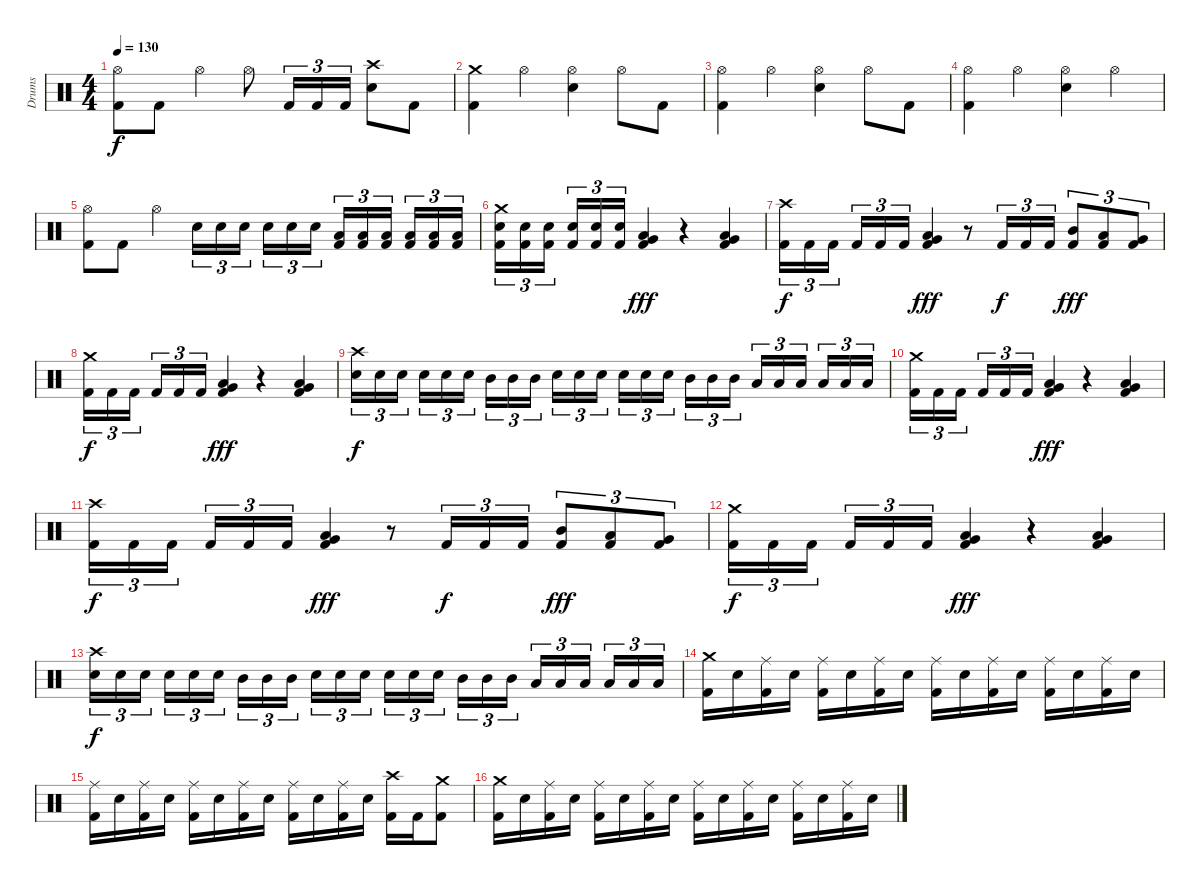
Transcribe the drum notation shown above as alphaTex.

\track ("Drums" "Drums") {instrument percussion}
\staff {score}
\articulation defaults
\ts (4 4)
\tempo 130
\clef neutral
\ks c
("Kick (hit) 2" "Hi-Hat (open)").8{dy f} "Kick (hit) 2".8 "Hi-Hat (open)".4 "Hi-Hat (open)".8 "Kick (hit) 2".16{tu (3 2)} "Kick (hit) 2".16{tu (3 2)} "Kick (hit) 2".16{tu (3 2)} ("Snare (hit) 2" "Crash high (hit)").8 "Kick (hit) 2".8 |
("Kick (hit) 2" "Crash medium (hit)").4 "Hi-Hat (open)".4 ("Snare (hit) 2" "Hi-Hat (open)").4 "Hi-Hat (open)".8 "Kick (hit) 2".8 |
("Kick (hit) 2" "Hi-Hat (open)").4 "Hi-Hat (open)".4 ("Snare (hit) 2" "Hi-Hat (open)").4 "Hi-Hat (open)".8 "Kick (hit) 2".8 |
("Kick (hit) 2" "Hi-Hat (open)").4 "Hi-Hat (open)".4 ("Snare (hit) 2" "Hi-Hat (open)").4 "Hi-Hat (open)".4 |
("Kick (hit) 2" "Hi-Hat (open)").8 "Kick (hit) 2".8 "Hi-Hat (open)".4 "Snare (hit) 2".16{tu (3 2)} "Snare (hit) 2".16{tu (3 2)} "Snare (hit) 2".16{tu (3 2)} "Snare (hit) 2".16{tu (3 2)} "Snare (hit) 2".16{tu (3 2)} "Snare (hit) 2".16{tu (3 2)} ("Kick (hit) 2" "Low Tom (hit)").16{tu (3 2)} ("Kick (hit) 2" "Low Tom (hit)").16{tu (3 2)} ("Kick (hit) 2" "Low Tom (hit)").16{tu (3 2)} ("Kick (hit) 2" "Low Tom (hit)").16{tu (3 2)} ("Kick (hit) 2" "Low Tom (hit)").16{tu (3 2)} ("Kick (hit) 2" "Low Tom (hit)").16{tu (3 2)} |
("Kick (hit) 2" "Snare (hit) 2" "Crash medium (hit)").16{tu (3 2)} ("Kick (hit) 2" "Snare (hit) 2").16{tu (3 2)} ("Kick (hit) 2" "Snare (hit) 2").16{tu (3 2)} ("Kick (hit) 2" "Snare (hit) 2").16{tu (3 2)} ("Kick (hit) 2" "Snare (hit) 2").16{tu (3 2)} ("Kick (hit) 2" "Snare (hit) 2").16{tu (3 2)} ("Kick (hit) 2" "Low Tom (hit)" "Very Low Tom (hit)").4{dy fff} r.4 ("Kick (hit) 2" "Low Tom (hit)" "Very Low Tom (hit)").4 |
("Kick (hit) 2" "Crash high (hit)").16{tu (3 2) dy f} "Kick (hit) 2".16{tu (3 2)} "Kick (hit) 2".16{tu (3 2)} "Kick (hit) 2".16{tu (3 2)} "Kick (hit) 2".16{tu (3 2)} "Kick (hit) 2".16{tu (3 2)} ("Kick (hit) 2" "Low Tom (hit)" "Very Low Tom (hit)").4{dy fff} r.8 "Kick (hit) 2".16{tu (3 2) dy f} "Kick (hit) 2".16{tu (3 2)} "Kick (hit) 2".16{tu (3 2)} ("Kick (hit) 2" "Mid Tom (hit)").8{tu (3 2) dy fff} ("Kick (hit) 2" "Low Tom (hit)").8{tu (3 2)} ("Kick (hit) 2" "Very Low Tom (hit)").8{tu (3 2)} |
("Kick (hit) 2" "Crash medium (hit)").16{tu (3 2) dy f} "Kick (hit) 2".16{tu (3 2)} "Kick (hit) 2".16{tu (3 2)} "Kick (hit) 2".16{tu (3 2)} "Kick (hit) 2".16{tu (3 2)} "Kick (hit) 2".16{tu (3 2)} ("Kick (hit) 2" "Low Tom (hit)" "Very Low Tom (hit)").4{dy fff} r.4 ("Kick (hit) 2" "Low Tom (hit)" "Very Low Tom (hit)").4 |
("Snare (hit) 2" "Crash high (hit)").16{tu (3 2) dy f} "Snare (hit) 2".16{tu (3 2)} "Snare (hit) 2".16{tu (3 2)} "Snare (hit) 2".16{tu (3 2)} "Snare (hit) 2".16{tu (3 2)} "Snare (hit) 2".16{tu (3 2)} "Mid Tom (hit)".16{tu (3 2)} "Mid Tom (hit)".16{tu (3 2)} "Mid Tom (hit)".16{tu (3 2)} "Snare (hit) 2".16{tu (3 2)} "Snare (hit) 2".16{tu (3 2)} "Snare (hit) 2".16{tu (3 2)} "Snare (hit) 2".16{tu (3 2)} "Snare (hit) 2".16{tu (3 2)} "Snare (hit) 2".16{tu (3 2)} "Mid Tom (hit)".16{tu (3 2)} "Mid Tom (hit)".16{tu (3 2)} "Mid Tom (hit)".16{tu (3 2)} "Low Tom (hit)".16{tu (3 2)} "Low Tom (hit)".16{tu (3 2)} "Low Tom (hit)".16{tu (3 2)} "Low Tom (hit)".16{tu (3 2)} "Low Tom (hit)".16{tu (3 2)} "Low Tom (hit)".16{tu (3 2)} |
("Kick (hit) 2" "Crash medium (hit)").16{tu (3 2)} "Kick (hit) 2".16{tu (3 2)} "Kick (hit) 2".16{tu (3 2)} "Kick (hit) 2".16{tu (3 2)} "Kick (hit) 2".16{tu (3 2)} "Kick (hit) 2".16{tu (3 2)} ("Kick (hit) 2" "Low Tom (hit)" "Very Low Tom (hit)").4{dy fff} r.4 ("Kick (hit) 2" "Low Tom (hit)" "Very Low Tom (hit)").4 |
("Kick (hit) 2" "Crash high (hit)").16{tu (3 2) dy f} "Kick (hit) 2".16{tu (3 2)} "Kick (hit) 2".16{tu (3 2)} "Kick (hit) 2".16{tu (3 2)} "Kick (hit) 2".16{tu (3 2)} "Kick (hit) 2".16{tu (3 2)} ("Kick (hit) 2" "Low Tom (hit)" "Very Low Tom (hit)").4{dy fff} r.8 "Kick (hit) 2".16{tu (3 2) dy f} "Kick (hit) 2".16{tu (3 2)} "Kick (hit) 2".16{tu (3 2)} ("Kick (hit) 2" "Mid Tom (hit)").8{tu (3 2) dy fff} ("Kick (hit) 2" "Low Tom (hit)").8{tu (3 2)} ("Kick (hit) 2" "Very Low Tom (hit)").8{tu (3 2)} |
("Kick (hit) 2" "Crash medium (hit)").16{tu (3 2) dy f} "Kick (hit) 2".16{tu (3 2)} "Kick (hit) 2".16{tu (3 2)} "Kick (hit) 2".16{tu (3 2)} "Kick (hit) 2".16{tu (3 2)} "Kick (hit) 2".16{tu (3 2)} ("Kick (hit) 2" "Low Tom (hit)" "Very Low Tom (hit)").4{dy fff} r.4 ("Kick (hit) 2" "Low Tom (hit)" "Very Low Tom (hit)").4 |
("Snare (hit) 2" "Crash high (hit)").16{tu (3 2) dy f} "Snare (hit) 2".16{tu (3 2)} "Snare (hit) 2".16{tu (3 2)} "Snare (hit) 2".16{tu (3 2)} "Snare (hit) 2".16{tu (3 2)} "Snare (hit) 2".16{tu (3 2)} "Mid Tom (hit)".16{tu (3 2)} "Mid Tom (hit)".16{tu (3 2)} "Mid Tom (hit)".16{tu (3 2)} "Snare (hit) 2".16{tu (3 2)} "Snare (hit) 2".16{tu (3 2)} "Snare (hit) 2".16{tu (3 2)} "Snare (hit) 2".16{tu (3 2)} "Snare (hit) 2".16{tu (3 2)} "Snare (hit) 2".16{tu (3 2)} "Mid Tom (hit)".16{tu (3 2)} "Mid Tom (hit)".16{tu (3 2)} "Mid Tom (hit)".16{tu (3 2)} "Low Tom (hit)".16{tu (3 2)} "Low Tom (hit)".16{tu (3 2)} "Low Tom (hit)".16{tu (3 2)} "Low Tom (hit)".16{tu (3 2)} "Low Tom (hit)".16{tu (3 2)} "Low Tom (hit)".16{tu (3 2)} |
("Kick (hit) 2" "Crash medium (hit)").16 "Electric Snare (hit)".16 ("Kick (hit) 2" "Ride (middle)").16 "Electric Snare (hit)".16 ("Kick (hit) 2" "Ride (middle)").16 "Electric Snare (hit)".16 ("Kick (hit) 2" "Ride (middle)").16 "Electric Snare (hit)".16 ("Kick (hit) 2" "Ride (middle)").16 "Electric Snare (hit)".16 ("Kick (hit) 2" "Ride (middle)").16 "Electric Snare (hit)".16 ("Kick (hit) 2" "Ride (middle)").16 "Electric Snare (hit)".16 ("Kick (hit) 2" "Ride (middle)").16 "Electric Snare (hit)".16 |
("Kick (hit) 2" "Ride (middle)").16 "Electric Snare (hit)".16 ("Kick (hit) 2" "Ride (middle)").16 "Electric Snare (hit)".16 ("Kick (hit) 2" "Ride (middle)").16 "Electric Snare (hit)".16 ("Kick (hit) 2" "Ride (middle)").16 "Electric Snare (hit)".16 ("Kick (hit) 2" "Ride (middle)").16 "Electric Snare (hit)".16 ("Kick (hit) 2" "Ride (middle)").16 "Electric Snare (hit)".16 ("Kick (hit) 2" "Crash high (hit)").16 "Kick (hit) 2".16 ("Kick (hit) 2" "Crash medium (hit)").8 |
("Kick (hit) 2" "Crash medium (hit)").16 "Electric Snare (hit)".16 ("Kick (hit) 2" "Ride (middle)").16 "Electric Snare (hit)".16 ("Kick (hit) 2" "Ride (middle)").16 "Electric Snare (hit)".16 ("Kick (hit) 2" "Ride (middle)").16 "Electric Snare (hit)".16 ("Kick (hit) 2" "Ride (middle)").16 "Electric Snare (hit)".16 ("Kick (hit) 2" "Ride (middle)").16 "Electric Snare (hit)".16 ("Kick (hit) 2" "Ride (middle)").16 "Electric Snare (hit)".16 ("Kick (hit) 2" "Ride (middle)").16 "Electric Snare (hit)".16
